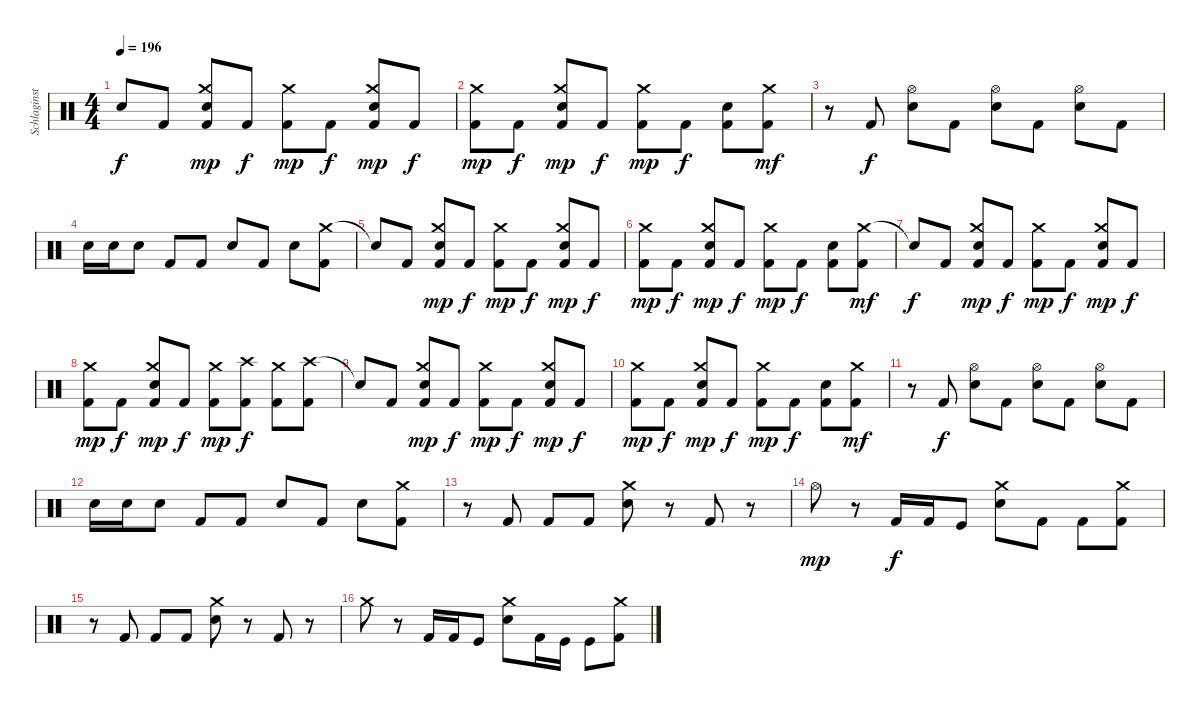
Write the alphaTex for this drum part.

\track ("Schlaginstrumente - Auswahl" "Schlaginst") {instrument percussion}
\staff
\articulation defaults
\ts (4 4)
\tempo 196
\clef neutral
\ks c "Snare (hit)"{t}.8{dy f} "Kick (hit) 2".8
("Crash medium (hit)" "Electric Snare (hit)" "Kick (hit) 2").8{dy mp} "Kick (hit) 2".8{dy f} ("Crash medium (hit)" "Kick (hit) 2").8{dy mp} "Kick (hit) 2".8{dy f} ("Crash medium (hit)" "Electric Snare (hit)" "Kick (hit) 2").8{dy mp} "Kick (hit) 2".8{dy f} |
("Crash medium (hit)" "Kick (hit) 2").8{dy mp} "Kick (hit) 2".8{dy f} ("Crash medium (hit)" "Electric Snare (hit)" "Kick (hit) 2").8{dy mp} "Kick (hit) 2".8{dy f} ("Crash medium (hit)" "Kick (hit) 2").8{dy mp} "Kick (hit) 2".8{dy f} ("Electric Snare (hit)" "Kick (hit) 2").8 ("Crash medium (hit)" "Kick (hit) 2").8{dy mf} |
r.8 "Kick (hit) 2".8{dy f} ("Hi-Hat (open)" "Electric Snare (hit)").8 "Kick (hit) 2".8 ("Hi-Hat (open)" "Electric Snare (hit)").8 "Kick (hit) 2".8 ("Hi-Hat (open)" "Electric Snare (hit)").8 "Kick (hit) 2".8 |
"Electric Snare (hit)".16 "Electric Snare (hit)".16 "Electric Snare (hit)".8 "Kick (hit) 2".8 "Kick (hit) 2".8 "Electric Snare (hit)".8 "Kick (hit) 2".8 "Electric Snare (hit)".8 ("Crash medium (hit)" "Kick (hit) 2").8 |
"Snare (hit)"{t}.8 "Kick (hit) 2".8 ("Crash medium (hit)" "Electric Snare (hit)" "Kick (hit) 2").8{dy mp} "Kick (hit) 2".8{dy f} ("Crash medium (hit)" "Kick (hit) 2").8{dy mp} "Kick (hit) 2".8{dy f} ("Crash medium (hit)" "Electric Snare (hit)" "Kick (hit) 2").8{dy mp} "Kick (hit) 2".8{dy f} |
("Crash medium (hit)" "Kick (hit) 2").8{dy mp} "Kick (hit) 2".8{dy f} ("Crash medium (hit)" "Electric Snare (hit)" "Kick (hit) 2").8{dy mp} "Kick (hit) 2".8{dy f} ("Crash medium (hit)" "Kick (hit) 2").8{dy mp} "Kick (hit) 2".8{dy f} ("Electric Snare (hit)" "Kick (hit) 2").8 ("Crash medium (hit)" "Kick (hit) 2").8{dy mf} |
"Snare (hit)"{t}.8{dy f} "Kick (hit) 2".8 ("Crash medium (hit)" "Electric Snare (hit)" "Kick (hit) 2").8{dy mp} "Kick (hit) 2".8{dy f} ("Crash medium (hit)" "Kick (hit) 2").8{dy mp} "Kick (hit) 2".8{dy f} ("Crash medium (hit)" "Electric Snare (hit)" "Kick (hit) 2").8{dy mp} "Kick (hit) 2".8{dy f} |
("Crash medium (hit)" "Kick (hit) 2").8{dy mp} "Kick (hit) 2".8{dy f} ("Crash medium (hit)" "Electric Snare (hit)" "Kick (hit) 2").8{dy mp} "Kick (hit) 2".8{dy f} ("Crash medium (hit)" "Kick (hit) 2").8{dy mp} ("Crash high (hit)" "Kick (hit) 2").8{dy f} ("Crash medium (hit)" "Kick (hit) 2").8 ("Crash high (hit)" "Kick (hit) 2").8 |
"Snare (hit)"{t}.8 "Kick (hit) 2".8 ("Crash medium (hit)" "Electric Snare (hit)" "Kick (hit) 2").8{dy mp} "Kick (hit) 2".8{dy f} ("Crash medium (hit)" "Kick (hit) 2").8{dy mp} "Kick (hit) 2".8{dy f} ("Crash medium (hit)" "Electric Snare (hit)" "Kick (hit) 2").8{dy mp} "Kick (hit) 2".8{dy f} |
("Crash medium (hit)" "Kick (hit) 2").8{dy mp} "Kick (hit) 2".8{dy f} ("Crash medium (hit)" "Electric Snare (hit)" "Kick (hit) 2").8{dy mp} "Kick (hit) 2".8{dy f} ("Crash medium (hit)" "Kick (hit) 2").8{dy mp} "Kick (hit) 2".8{dy f} ("Electric Snare (hit)" "Kick (hit) 2").8 ("Crash medium (hit)" "Kick (hit) 2").8{dy mf} |
r.8 "Kick (hit) 2".8{dy f} ("Hi-Hat (open)" "Electric Snare (hit)").8 "Kick (hit) 2".8 ("Hi-Hat (open)" "Electric Snare (hit)").8 "Kick (hit) 2".8 ("Hi-Hat (open)" "Electric Snare (hit)").8 "Kick (hit) 2".8 |
"Electric Snare (hit)".16 "Electric Snare (hit)".16 "Electric Snare (hit)".8 "Kick (hit) 2".8 "Kick (hit) 2".8 "Electric Snare (hit)".8 "Kick (hit) 2".8 "Electric Snare (hit)".8 ("Crash medium (hit)" "Kick (hit) 2").8 |
r.8 "Kick (hit) 2".8 "Kick (hit) 2".8 "Kick (hit) 2".8 ("Crash medium (hit)" "Snare (hit) 2").8 r.8 "Kick (hit) 2".8 r.8 |
"Hi-Hat (open)".8{dy mp} r.8 "Kick (hit) 2".16{dy f} "Kick (hit) 2".16 "Kick (hit)".8 ("Crash medium (hit)" "Electric Snare (hit)").8 "Kick (hit) 2".8 "Kick (hit) 2".8 ("Crash medium (hit)" "Kick (hit) 2").8 |
r.8 "Kick (hit) 2".8 "Kick (hit) 2".8 "Kick (hit) 2".8 ("Crash medium (hit)" "Snare (hit) 2").8 r.8 "Kick (hit) 2".8 r.8 |
"Crash medium (hit)".8 r.8 "Kick (hit) 2".16 "Kick (hit) 2".16 "Kick (hit)".8 ("Crash medium (hit)" "Electric Snare (hit)").8 "Kick (hit) 2".16 "Kick (hit)".16 "Kick (hit)".8 ("Crash medium (hit)" "Kick (hit) 2").8
